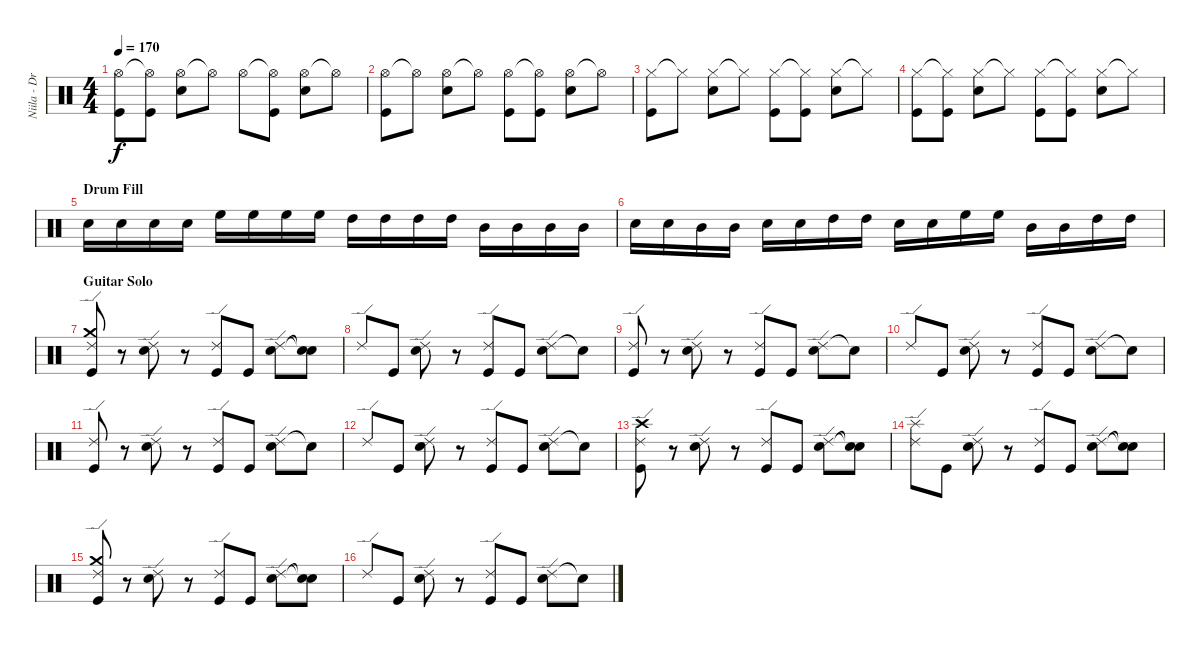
\track ("Niila - Drums" "Niila - Dr") {instrument percussion}
\staff {score}
\articulation defaults
\ts (4 4)
\tempo 170
\clef neutral
\ks c
("Hi-Hat (open)" "Kick (hit)").8{dy f} ("Hi-Hat (open)"{t} "Kick (hit)").8 ("Hi-Hat (open)" "Snare (hit) 2").8 "Hi-Hat (open)"{t}.8 "Hi-Hat (open)".8 ("Hi-Hat (open)"{t} "Kick (hit)").8 ("Hi-Hat (open)" "Snare (hit) 2").8 "Hi-Hat (open)"{t}.8 |
("Hi-Hat (open)" "Kick (hit)").8 "Hi-Hat (open)"{t}.8 ("Hi-Hat (open)" "Snare (hit) 2").8 "Hi-Hat (open)"{t}.8 ("Hi-Hat (open)" "Kick (hit)").8 ("Hi-Hat (open)"{t} "Kick (hit)").8 ("Hi-Hat (open)" "Snare (hit) 2").8 "Hi-Hat (open)"{t}.8 |
("Hi-Hat (closed)" "Kick (hit)").8 "Hi-Hat (closed)"{t}.8 ("Hi-Hat (closed)" "Snare (hit) 2").8 "Hi-Hat (closed)"{t}.8 ("Hi-Hat (closed)" "Kick (hit)").8 ("Hi-Hat (closed)"{t} "Kick (hit)").8 ("Hi-Hat (closed)" "Snare (hit) 2").8 "Hi-Hat (closed)"{t}.8 |
("Hi-Hat (closed)" "Kick (hit)").8 ("Hi-Hat (closed)"{t} "Kick (hit)").8 ("Hi-Hat (closed)" "Snare (hit) 2").8 "Hi-Hat (closed)"{t}.8 ("Hi-Hat (closed)" "Kick (hit)").8 ("Hi-Hat (closed)"{t} "Kick (hit)").8 ("Hi-Hat (closed)" "Snare (hit) 2").8 "Hi-Hat (closed)"{t}.8 |
\section ("" "Drum Fill")
"Snare (hit) 2".16 "Snare (hit) 2".16 "Snare (hit) 2".16 "Snare (hit) 2".16 "High Floor Tom (hit)".16 "High Floor Tom (hit)".16 "High Floor Tom (hit)".16 "High Floor Tom (hit)".16 "High Tom (hit)".16 "High Tom (hit)".16 "High Tom (hit)".16 "High Tom (hit)".16 "Mid Tom (hit)".16 "Mid Tom (hit)".16 "Mid Tom (hit)".16 "Mid Tom (hit)".16 |
"Snare (hit) 2".16 "Snare (hit) 2".16 "Mid Tom (hit)".16 "Mid Tom (hit)".16 "Snare (hit) 2".16 "Snare (hit) 2".16 "High Tom (hit)".16 "High Tom (hit)".16 "Snare (hit) 2".16 "Snare (hit) 2".16 "High Floor Tom (hit)".16 "High Floor Tom (hit)".16 "Mid Tom (hit)".16 "Mid Tom (hit)".16 "High Tom (hit)".16 "High Tom (hit)".16 |
\section ("" "Guitar Solo")
("Crash medium (hit)" "Ride (edge) 2" "Kick (hit)").8 r.8 ("Ride (edge) 2" "Snare (hit) 2").8 r.8 ("Ride (edge) 2" "Kick (hit)").8 "Kick (hit)".8 ("Ride (edge) 2" "Snare (hit) 2").8 ("Snare (hit)"{t} "Snare (hit)"{t}).8 |
"Ride (edge) 2".8 "Kick (hit)".8 ("Ride (edge) 2" "Snare (hit) 2").8 r.8 ("Ride (edge) 2" "Kick (hit)").8 "Kick (hit)".8 ("Ride (edge) 2" "Snare (hit) 2").8 "Snare (hit)"{t}.8 |
("Ride (edge) 2" "Kick (hit)").8 r.8 ("Ride (edge) 2" "Snare (hit) 2").8 r.8 ("Ride (edge) 2" "Kick (hit)").8 "Kick (hit)".8 ("Ride (edge) 2" "Snare (hit) 2").8 "Snare (hit)"{t}.8 |
"Ride (edge) 2".8 "Kick (hit)".8 ("Ride (edge) 2" "Snare (hit) 2").8 r.8 ("Ride (edge) 2" "Kick (hit)").8 "Kick (hit)".8 ("Ride (edge) 2" "Snare (hit) 2").8 "Snare (hit)"{t}.8 |
("Ride (edge) 2" "Kick (hit)").8 r.8 ("Ride (edge) 2" "Snare (hit) 2").8 r.8 ("Ride (edge) 2" "Kick (hit)").8 "Kick (hit)".8 ("Ride (edge) 2" "Snare (hit) 2").8 "Snare (hit)"{t}.8 |
"Ride (edge) 2".8 "Kick (hit)".8 ("Ride (edge) 2" "Snare (hit) 2").8 r.8 ("Ride (edge) 2" "Kick (hit)").8 "Kick (hit)".8 ("Ride (edge) 2" "Snare (hit) 2").8 "Snare (hit)"{t}.8 |
("Crash high (hit)" "Ride (edge) 2" "Kick (hit)").8 r.8 ("Ride (edge) 2" "Snare (hit) 2").8 r.8 ("Ride (edge) 2" "Kick (hit)").8 "Kick (hit)".8 ("Ride (edge) 2" "Snare (hit) 2").8 ("Snare (hit)"{t} "Snare (hit)"{t}).8 |
("Splash (hit)" "Ride (edge) 2").8 "Kick (hit)".8 ("Ride (edge) 2" "Snare (hit) 2").8 r.8 ("Ride (edge) 2" "Kick (hit)").8 "Kick (hit)".8 ("Ride (edge) 2" "Snare (hit) 2").8 ("Snare (hit)"{t} "Snare (hit)"{t}).8 |
("Crash medium (hit)" "Ride (edge) 2" "Kick (hit)").8 r.8 ("Ride (edge) 2" "Snare (hit) 2").8 r.8 ("Ride (edge) 2" "Kick (hit)").8 "Kick (hit)".8 ("Ride (edge) 2" "Snare (hit) 2").8 ("Snare (hit)"{t} "Snare (hit)"{t}).8 |
"Ride (edge) 2".8 "Kick (hit)".8 ("Ride (edge) 2" "Snare (hit) 2").8 r.8 ("Ride (edge) 2" "Kick (hit)").8 "Kick (hit)".8 ("Ride (edge) 2" "Snare (hit) 2").8 "Snare (hit)"{t}.8
